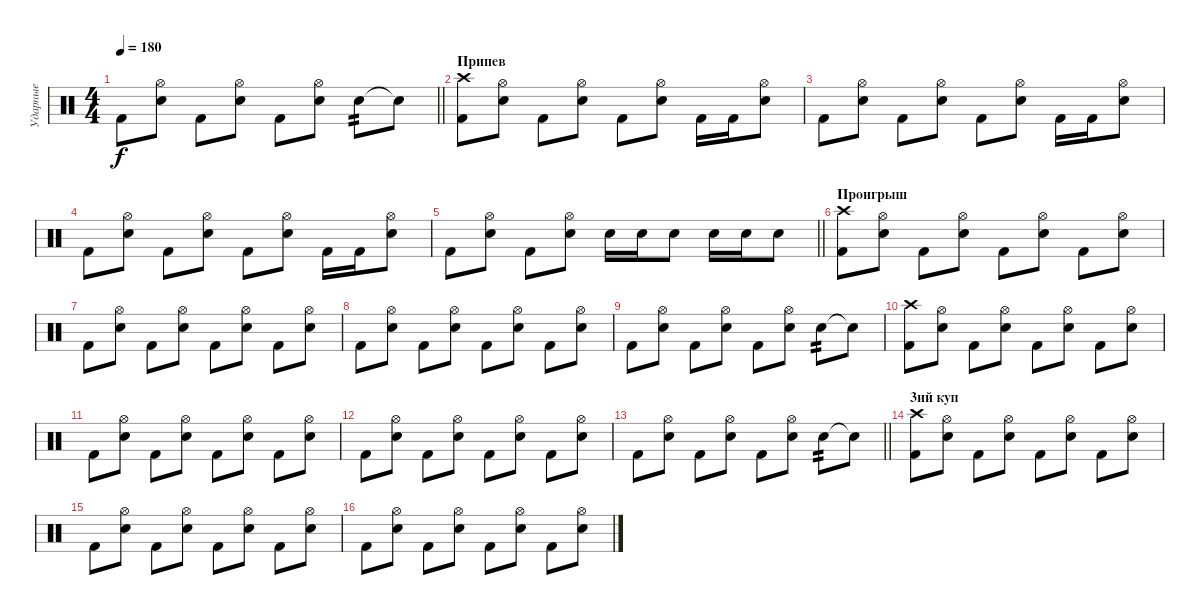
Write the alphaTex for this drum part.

\track ("Ударные" "Ударные") {instrument percussion}
\staff {score}
\articulation defaults
\ts (4 4)
\tempo 180
\clef neutral
\barLineRight lightlight
\ks c "Kick (hit) 2".8{dy f}
("Hi-Hat (open)" "Electric Snare (hit)").8 "Kick (hit) 2".8 ("Hi-Hat (open)" "Electric Snare (hit)").8 "Kick (hit) 2".8 ("Hi-Hat (open)" "Electric Snare (hit)").8 "Electric Snare (hit)".8{tp 2} "Electric Snare (hit)"{t}.8 |
\section ("" "Припев")
("Crash high (hit)" "Kick (hit) 2").8 ("Hi-Hat (open)" "Electric Snare (hit)").8 "Kick (hit) 2".8 ("Hi-Hat (open)" "Electric Snare (hit)").8 "Kick (hit) 2".8 ("Hi-Hat (open)" "Electric Snare (hit)").8 "Kick (hit) 2".16 "Kick (hit) 2".16 ("Hi-Hat (open)" "Electric Snare (hit)").8 |
"Kick (hit) 2".8 ("Hi-Hat (open)" "Electric Snare (hit)").8 "Kick (hit) 2".8 ("Hi-Hat (open)" "Electric Snare (hit)").8 "Kick (hit) 2".8 ("Hi-Hat (open)" "Electric Snare (hit)").8 "Kick (hit) 2".16 "Kick (hit) 2".16 ("Hi-Hat (open)" "Electric Snare (hit)").8 |
"Kick (hit) 2".8 ("Hi-Hat (open)" "Electric Snare (hit)").8 "Kick (hit) 2".8 ("Hi-Hat (open)" "Electric Snare (hit)").8 "Kick (hit) 2".8 ("Hi-Hat (open)" "Electric Snare (hit)").8 "Kick (hit) 2".16 "Kick (hit) 2".16 ("Hi-Hat (open)" "Electric Snare (hit)").8 |
\barLineRight lightlight "Kick (hit) 2".8
("Hi-Hat (open)" "Electric Snare (hit)").8 "Kick (hit) 2".8 ("Hi-Hat (open)" "Electric Snare (hit)").8 "Electric Snare (hit)".16 "Electric Snare (hit)".16 "Electric Snare (hit)".8 "Electric Snare (hit)".16 "Electric Snare (hit)".16 "Electric Snare (hit)".8 |
\section ("" "Проигрыш")
("Crash high (hit)" "Kick (hit) 2").8 ("Hi-Hat (open)" "Electric Snare (hit)").8 "Kick (hit) 2".8 ("Hi-Hat (open)" "Electric Snare (hit)").8 "Kick (hit) 2".8 ("Hi-Hat (open)" "Electric Snare (hit)").8 "Kick (hit) 2".8 ("Hi-Hat (open)" "Electric Snare (hit)").8 |
"Kick (hit) 2".8 ("Hi-Hat (open)" "Electric Snare (hit)").8 "Kick (hit) 2".8 ("Hi-Hat (open)" "Electric Snare (hit)").8 "Kick (hit) 2".8 ("Hi-Hat (open)" "Electric Snare (hit)").8 "Kick (hit) 2".8 ("Hi-Hat (open)" "Electric Snare (hit)").8 |
"Kick (hit) 2".8 ("Hi-Hat (open)" "Electric Snare (hit)").8 "Kick (hit) 2".8 ("Hi-Hat (open)" "Electric Snare (hit)").8 "Kick (hit) 2".8 ("Hi-Hat (open)" "Electric Snare (hit)").8 "Kick (hit) 2".8 ("Hi-Hat (open)" "Electric Snare (hit)").8 |
"Kick (hit) 2".8 ("Hi-Hat (open)" "Electric Snare (hit)").8 "Kick (hit) 2".8 ("Hi-Hat (open)" "Electric Snare (hit)").8 "Kick (hit) 2".8 ("Hi-Hat (open)" "Electric Snare (hit)").8 "Electric Snare (hit)".8{tp 2} "Electric Snare (hit)"{t}.8 |
("Crash high (hit)" "Kick (hit) 2").8 ("Hi-Hat (open)" "Electric Snare (hit)").8 "Kick (hit) 2".8 ("Hi-Hat (open)" "Electric Snare (hit)").8 "Kick (hit) 2".8 ("Hi-Hat (open)" "Electric Snare (hit)").8 "Kick (hit) 2".8 ("Hi-Hat (open)" "Electric Snare (hit)").8 |
"Kick (hit) 2".8 ("Hi-Hat (open)" "Electric Snare (hit)").8 "Kick (hit) 2".8 ("Hi-Hat (open)" "Electric Snare (hit)").8 "Kick (hit) 2".8 ("Hi-Hat (open)" "Electric Snare (hit)").8 "Kick (hit) 2".8 ("Hi-Hat (open)" "Electric Snare (hit)").8 |
"Kick (hit) 2".8 ("Hi-Hat (open)" "Electric Snare (hit)").8 "Kick (hit) 2".8 ("Hi-Hat (open)" "Electric Snare (hit)").8 "Kick (hit) 2".8 ("Hi-Hat (open)" "Electric Snare (hit)").8 "Kick (hit) 2".8 ("Hi-Hat (open)" "Electric Snare (hit)").8 |
\barLineRight lightlight "Kick (hit) 2".8
("Hi-Hat (open)" "Electric Snare (hit)").8 "Kick (hit) 2".8 ("Hi-Hat (open)" "Electric Snare (hit)").8 "Kick (hit) 2".8 ("Hi-Hat (open)" "Electric Snare (hit)").8 "Electric Snare (hit)".8{tp 2} "Electric Snare (hit)"{t}.8 |
\section ("" "3ий куп")
("Crash high (hit)" "Kick (hit) 2").8 ("Hi-Hat (open)" "Electric Snare (hit)").8 "Kick (hit) 2".8 ("Hi-Hat (open)" "Electric Snare (hit)").8 "Kick (hit) 2".8 ("Hi-Hat (open)" "Electric Snare (hit)").8 "Kick (hit) 2".8 ("Hi-Hat (open)" "Electric Snare (hit)").8 |
"Kick (hit) 2".8 ("Hi-Hat (open)" "Electric Snare (hit)").8 "Kick (hit) 2".8 ("Hi-Hat (open)" "Electric Snare (hit)").8 "Kick (hit) 2".8 ("Hi-Hat (open)" "Electric Snare (hit)").8 "Kick (hit) 2".8 ("Hi-Hat (open)" "Electric Snare (hit)").8 |
"Kick (hit) 2".8 ("Hi-Hat (open)" "Electric Snare (hit)").8 "Kick (hit) 2".8 ("Hi-Hat (open)" "Electric Snare (hit)").8 "Kick (hit) 2".8 ("Hi-Hat (open)" "Electric Snare (hit)").8 "Kick (hit) 2".8 ("Hi-Hat (open)" "Electric Snare (hit)").8
